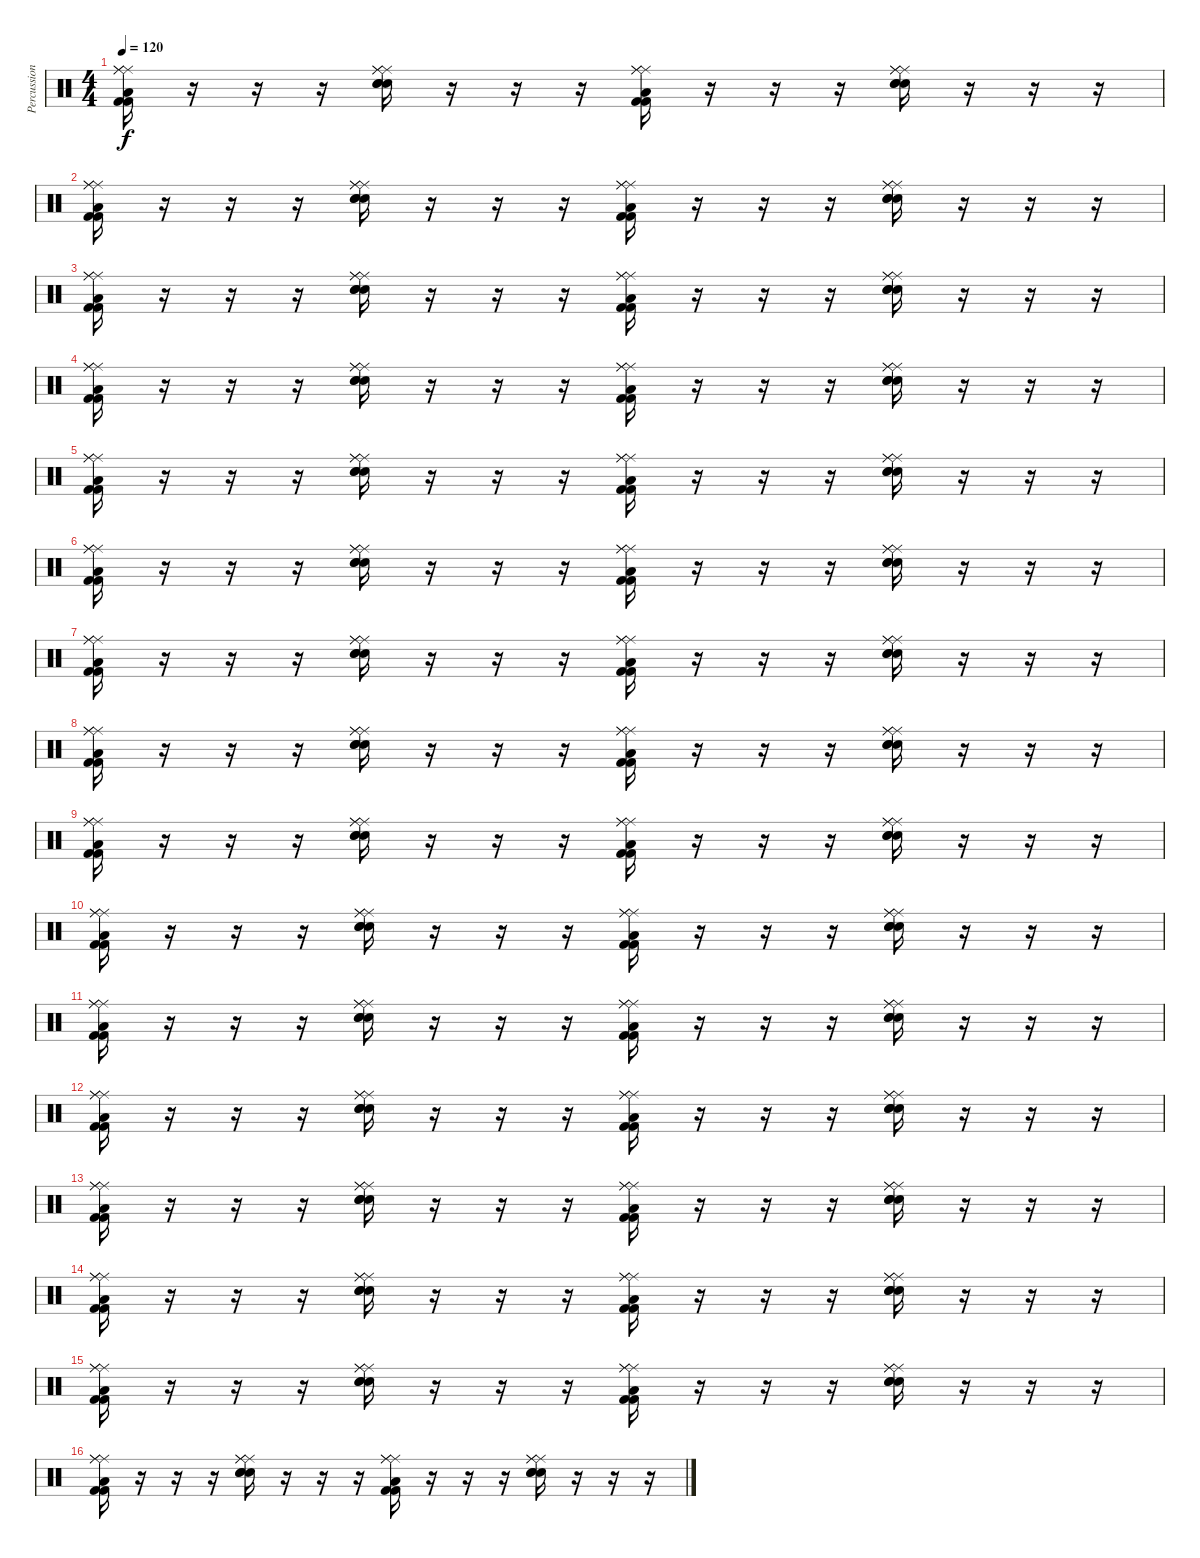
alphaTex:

\track ("Percussion" "Percussion") {instrument percussion}
\staff {score}
\articulation defaults
\ts (4 4)
\tempo 120
\clef neutral
\ks c
("Ride (middle)" "Ride (middle)" "Ride (middle)" "Low Floor Tom (hit)" "Kick (hit) 2" "Kick (hit) 2").16{dy f} r.16 r.16 r.16 ("Ride (middle)" "Ride (middle)" "Ride (middle)" "Snare (hit) 2" "Snare (hit) 2" "Snare (hit) 2").16 r.16 r.16 r.16 ("Ride (middle)" "Ride (middle)" "Ride (middle)" "Low Floor Tom (hit)" "Kick (hit) 2" "Kick (hit) 2").16 r.16 r.16 r.16 ("Ride (middle)" "Ride (middle)" "Ride (middle)" "Snare (hit) 2" "Snare (hit) 2" "Snare (hit) 2").16 r.16 r.16 r.16 |
("Ride (middle)" "Ride (middle)" "Ride (middle)" "Low Floor Tom (hit)" "Kick (hit) 2" "Kick (hit) 2").16 r.16 r.16 r.16 ("Ride (middle)" "Ride (middle)" "Ride (middle)" "Snare (hit) 2" "Snare (hit) 2" "Snare (hit) 2").16 r.16 r.16 r.16 ("Ride (middle)" "Ride (middle)" "Ride (middle)" "Low Floor Tom (hit)" "Kick (hit) 2" "Kick (hit) 2").16 r.16 r.16 r.16 ("Ride (middle)" "Ride (middle)" "Ride (middle)" "Snare (hit) 2" "Snare (hit) 2" "Snare (hit) 2").16 r.16 r.16 r.16 |
("Ride (middle)" "Ride (middle)" "Ride (middle)" "Low Floor Tom (hit)" "Kick (hit) 2" "Kick (hit) 2").16 r.16 r.16 r.16 ("Ride (middle)" "Ride (middle)" "Ride (middle)" "Snare (hit) 2" "Snare (hit) 2" "Snare (hit) 2").16 r.16 r.16 r.16 ("Ride (middle)" "Ride (middle)" "Ride (middle)" "Low Floor Tom (hit)" "Kick (hit) 2" "Kick (hit) 2").16 r.16 r.16 r.16 ("Ride (middle)" "Ride (middle)" "Ride (middle)" "Snare (hit) 2" "Snare (hit) 2" "Snare (hit) 2").16 r.16 r.16 r.16 |
("Ride (middle)" "Ride (middle)" "Ride (middle)" "Low Floor Tom (hit)" "Kick (hit) 2" "Kick (hit) 2").16 r.16 r.16 r.16 ("Ride (middle)" "Ride (middle)" "Ride (middle)" "Snare (hit) 2" "Snare (hit) 2" "Snare (hit) 2").16 r.16 r.16 r.16 ("Ride (middle)" "Ride (middle)" "Ride (middle)" "Low Floor Tom (hit)" "Kick (hit) 2" "Kick (hit) 2").16 r.16 r.16 r.16 ("Ride (middle)" "Ride (middle)" "Ride (middle)" "Snare (hit) 2" "Snare (hit) 2" "Snare (hit) 2").16 r.16 r.16 r.16 |
("Ride (middle)" "Ride (middle)" "Ride (middle)" "Low Floor Tom (hit)" "Kick (hit) 2" "Kick (hit) 2").16 r.16 r.16 r.16 ("Ride (middle)" "Ride (middle)" "Ride (middle)" "Snare (hit) 2" "Snare (hit) 2" "Snare (hit) 2").16 r.16 r.16 r.16 ("Ride (middle)" "Ride (middle)" "Ride (middle)" "Low Floor Tom (hit)" "Kick (hit) 2" "Kick (hit) 2").16 r.16 r.16 r.16 ("Ride (middle)" "Ride (middle)" "Ride (middle)" "Snare (hit) 2" "Snare (hit) 2" "Snare (hit) 2").16 r.16 r.16 r.16 |
("Ride (middle)" "Ride (middle)" "Ride (middle)" "Low Floor Tom (hit)" "Kick (hit) 2" "Kick (hit) 2").16 r.16 r.16 r.16 ("Ride (middle)" "Ride (middle)" "Ride (middle)" "Snare (hit) 2" "Snare (hit) 2" "Snare (hit) 2").16 r.16 r.16 r.16 ("Ride (middle)" "Ride (middle)" "Ride (middle)" "Low Floor Tom (hit)" "Kick (hit) 2" "Kick (hit) 2").16 r.16 r.16 r.16 ("Ride (middle)" "Ride (middle)" "Ride (middle)" "Snare (hit) 2" "Snare (hit) 2" "Snare (hit) 2").16 r.16 r.16 r.16 |
("Ride (middle)" "Ride (middle)" "Ride (middle)" "Low Floor Tom (hit)" "Kick (hit) 2" "Kick (hit) 2").16 r.16 r.16 r.16 ("Ride (middle)" "Ride (middle)" "Ride (middle)" "Snare (hit) 2" "Snare (hit) 2" "Snare (hit) 2").16 r.16 r.16 r.16 ("Ride (middle)" "Ride (middle)" "Ride (middle)" "Low Floor Tom (hit)" "Kick (hit) 2" "Kick (hit) 2").16 r.16 r.16 r.16 ("Ride (middle)" "Ride (middle)" "Ride (middle)" "Snare (hit) 2" "Snare (hit) 2" "Snare (hit) 2").16 r.16 r.16 r.16 |
("Ride (middle)" "Ride (middle)" "Ride (middle)" "Low Floor Tom (hit)" "Kick (hit) 2" "Kick (hit) 2").16 r.16 r.16 r.16 ("Ride (middle)" "Ride (middle)" "Ride (middle)" "Snare (hit) 2" "Snare (hit) 2" "Snare (hit) 2").16 r.16 r.16 r.16 ("Ride (middle)" "Ride (middle)" "Ride (middle)" "Low Floor Tom (hit)" "Kick (hit) 2" "Kick (hit) 2").16 r.16 r.16 r.16 ("Ride (middle)" "Ride (middle)" "Ride (middle)" "Snare (hit) 2" "Snare (hit) 2" "Snare (hit) 2").16 r.16 r.16 r.16 |
("Ride (middle)" "Ride (middle)" "Ride (middle)" "Low Floor Tom (hit)" "Kick (hit) 2" "Kick (hit) 2").16 r.16 r.16 r.16 ("Ride (middle)" "Ride (middle)" "Ride (middle)" "Snare (hit) 2" "Snare (hit) 2" "Snare (hit) 2").16 r.16 r.16 r.16 ("Ride (middle)" "Ride (middle)" "Ride (middle)" "Low Floor Tom (hit)" "Kick (hit) 2" "Kick (hit) 2").16 r.16 r.16 r.16 ("Ride (middle)" "Ride (middle)" "Ride (middle)" "Snare (hit) 2" "Snare (hit) 2" "Snare (hit) 2").16 r.16 r.16 r.16 |
("Ride (middle)" "Ride (middle)" "Ride (middle)" "Low Floor Tom (hit)" "Kick (hit) 2" "Kick (hit) 2").16 r.16 r.16 r.16 ("Ride (middle)" "Ride (middle)" "Ride (middle)" "Snare (hit) 2" "Snare (hit) 2" "Snare (hit) 2").16 r.16 r.16 r.16 ("Ride (middle)" "Ride (middle)" "Ride (middle)" "Low Floor Tom (hit)" "Kick (hit) 2" "Kick (hit) 2").16 r.16 r.16 r.16 ("Ride (middle)" "Ride (middle)" "Ride (middle)" "Snare (hit) 2" "Snare (hit) 2" "Snare (hit) 2").16 r.16 r.16 r.16 |
("Ride (middle)" "Ride (middle)" "Ride (middle)" "Low Floor Tom (hit)" "Kick (hit) 2" "Kick (hit) 2").16 r.16 r.16 r.16 ("Ride (middle)" "Ride (middle)" "Ride (middle)" "Snare (hit) 2" "Snare (hit) 2" "Snare (hit) 2").16 r.16 r.16 r.16 ("Ride (middle)" "Ride (middle)" "Ride (middle)" "Low Floor Tom (hit)" "Kick (hit) 2" "Kick (hit) 2").16 r.16 r.16 r.16 ("Ride (middle)" "Ride (middle)" "Ride (middle)" "Snare (hit) 2" "Snare (hit) 2" "Snare (hit) 2").16 r.16 r.16 r.16 |
("Ride (middle)" "Ride (middle)" "Ride (middle)" "Low Floor Tom (hit)" "Kick (hit) 2" "Kick (hit) 2").16 r.16 r.16 r.16 ("Ride (middle)" "Ride (middle)" "Ride (middle)" "Snare (hit) 2" "Snare (hit) 2" "Snare (hit) 2").16 r.16 r.16 r.16 ("Ride (middle)" "Ride (middle)" "Ride (middle)" "Low Floor Tom (hit)" "Kick (hit) 2" "Kick (hit) 2").16 r.16 r.16 r.16 ("Ride (middle)" "Ride (middle)" "Ride (middle)" "Snare (hit) 2" "Snare (hit) 2" "Snare (hit) 2").16 r.16 r.16 r.16 |
("Ride (middle)" "Ride (middle)" "Ride (middle)" "Low Floor Tom (hit)" "Kick (hit) 2" "Kick (hit) 2").16 r.16 r.16 r.16 ("Ride (middle)" "Ride (middle)" "Ride (middle)" "Snare (hit) 2" "Snare (hit) 2" "Snare (hit) 2").16 r.16 r.16 r.16 ("Ride (middle)" "Ride (middle)" "Ride (middle)" "Low Floor Tom (hit)" "Kick (hit) 2" "Kick (hit) 2").16 r.16 r.16 r.16 ("Ride (middle)" "Ride (middle)" "Ride (middle)" "Snare (hit) 2" "Snare (hit) 2" "Snare (hit) 2").16 r.16 r.16 r.16 |
("Ride (middle)" "Ride (middle)" "Ride (middle)" "Low Floor Tom (hit)" "Kick (hit) 2" "Kick (hit) 2").16 r.16 r.16 r.16 ("Ride (middle)" "Ride (middle)" "Ride (middle)" "Snare (hit) 2" "Snare (hit) 2" "Snare (hit) 2").16 r.16 r.16 r.16 ("Ride (middle)" "Ride (middle)" "Ride (middle)" "Low Floor Tom (hit)" "Kick (hit) 2" "Kick (hit) 2").16 r.16 r.16 r.16 ("Ride (middle)" "Ride (middle)" "Ride (middle)" "Snare (hit) 2" "Snare (hit) 2" "Snare (hit) 2").16 r.16 r.16 r.16 |
("Ride (middle)" "Ride (middle)" "Ride (middle)" "Low Floor Tom (hit)" "Kick (hit) 2" "Kick (hit) 2").16 r.16 r.16 r.16 ("Ride (middle)" "Ride (middle)" "Ride (middle)" "Snare (hit) 2" "Snare (hit) 2" "Snare (hit) 2").16 r.16 r.16 r.16 ("Ride (middle)" "Ride (middle)" "Ride (middle)" "Low Floor Tom (hit)" "Kick (hit) 2" "Kick (hit) 2").16 r.16 r.16 r.16 ("Ride (middle)" "Ride (middle)" "Ride (middle)" "Snare (hit) 2" "Snare (hit) 2" "Snare (hit) 2").16 r.16 r.16 r.16 |
("Ride (middle)" "Ride (middle)" "Ride (middle)" "Low Floor Tom (hit)" "Kick (hit) 2" "Kick (hit) 2").16 r.16 r.16 r.16 ("Ride (middle)" "Ride (middle)" "Ride (middle)" "Snare (hit) 2" "Snare (hit) 2" "Snare (hit) 2").16 r.16 r.16 r.16 ("Ride (middle)" "Ride (middle)" "Ride (middle)" "Low Floor Tom (hit)" "Kick (hit) 2" "Kick (hit) 2").16 r.16 r.16 r.16 ("Ride (middle)" "Ride (middle)" "Ride (middle)" "Snare (hit) 2" "Snare (hit) 2" "Snare (hit) 2").16 r.16 r.16 r.16
